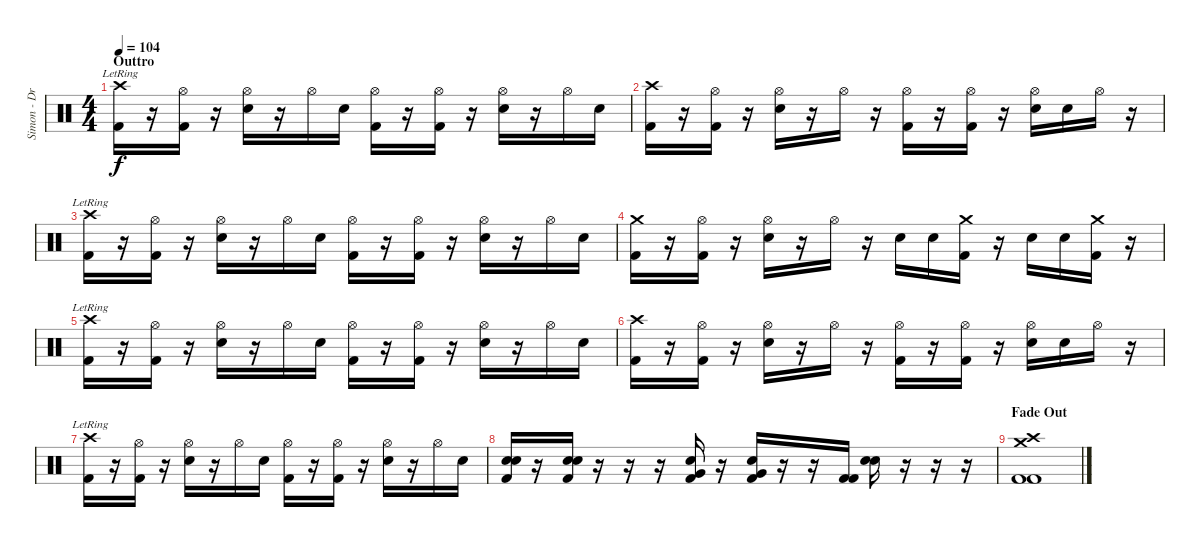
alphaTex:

\track ("Simon - Drums" "Simon - Dr") {instrument percussion}
\staff {score}
\articulation defaults
\ts (4 4)
\section ("" "Outtro")
\tempo 104
\clef neutral
\ks c
("Crash high (hit)"{lr} "Kick (hit) 2").16{dy f} r.16 ("Hi-Hat (open)" "Kick (hit) 2").16 r.16 ("Hi-Hat (open)" "Electric Snare (hit)").16 r.16 "Hi-Hat (open)".16 "Electric Snare (hit)".16 ("Hi-Hat (open)" "Kick (hit) 2").16 r.16 ("Hi-Hat (open)" "Kick (hit) 2").16 r.16 ("Hi-Hat (open)" "Electric Snare (hit)").16 r.16 "Hi-Hat (open)".16 "Electric Snare (hit)".16 |
("Crash high (hit)" "Kick (hit) 2").16 r.16 ("Hi-Hat (open)" "Kick (hit) 2").16 r.16 ("Hi-Hat (open)" "Electric Snare (hit)").16 r.16 "Hi-Hat (open)".16 r.16 ("Hi-Hat (open)" "Kick (hit) 2").16 r.16 ("Hi-Hat (open)" "Kick (hit) 2").16 r.16 ("Hi-Hat (open)" "Electric Snare (hit)").16 "Electric Snare (hit)".16 "Hi-Hat (open)".16 r.16 |
("Crash high (hit)"{lr} "Kick (hit) 2").16 r.16 ("Hi-Hat (open)" "Kick (hit) 2").16 r.16 ("Hi-Hat (open)" "Electric Snare (hit)").16 r.16 "Hi-Hat (open)".16 "Electric Snare (hit)".16 ("Hi-Hat (open)" "Kick (hit) 2").16 r.16 ("Hi-Hat (open)" "Kick (hit) 2").16 r.16 ("Hi-Hat (open)" "Electric Snare (hit)").16 r.16 "Hi-Hat (open)".16 "Electric Snare (hit)".16 |
("Crash medium (hit)" "Kick (hit) 2").16 r.16 ("Hi-Hat (open)" "Kick (hit) 2").16 r.16 ("Hi-Hat (open)" "Electric Snare (hit)").16 r.16 "Hi-Hat (open)".16 r.16 "Electric Snare (hit)".16 "Electric Snare (hit)".16 ("Crash medium (hit)" "Kick (hit) 2").16 r.16 "Electric Snare (hit)".16 "Electric Snare (hit)".16 ("Crash medium (hit)" "Kick (hit) 2").16 r.16 |
("Crash high (hit)"{lr} "Kick (hit) 2").16 r.16 ("Hi-Hat (open)" "Kick (hit) 2").16 r.16 ("Hi-Hat (open)" "Electric Snare (hit)").16 r.16 "Hi-Hat (open)".16 "Electric Snare (hit)".16 ("Hi-Hat (open)" "Kick (hit) 2").16 r.16 ("Hi-Hat (open)" "Kick (hit) 2").16 r.16 ("Hi-Hat (open)" "Electric Snare (hit)").16 r.16 "Hi-Hat (open)".16 "Electric Snare (hit)".16 |
("Crash high (hit)" "Kick (hit) 2").16 r.16 ("Hi-Hat (open)" "Kick (hit) 2").16 r.16 ("Hi-Hat (open)" "Electric Snare (hit)").16 r.16 "Hi-Hat (open)".16 r.16 ("Hi-Hat (open)" "Kick (hit) 2").16 r.16 ("Hi-Hat (open)" "Kick (hit) 2").16 r.16 ("Hi-Hat (open)" "Electric Snare (hit)").16 "Electric Snare (hit)".16 "Hi-Hat (open)".16 r.16 |
("Crash high (hit)"{lr} "Kick (hit) 2").16 r.16 ("Hi-Hat (open)" "Kick (hit) 2").16 r.16 ("Hi-Hat (open)" "Electric Snare (hit)").16 r.16 "Hi-Hat (open)".16 "Electric Snare (hit)".16 ("Hi-Hat (open)" "Kick (hit) 2").16 r.16 ("Hi-Hat (open)" "Kick (hit) 2").16 r.16 ("Hi-Hat (open)" "Electric Snare (hit)").16 r.16 "Hi-Hat (open)".16 "Electric Snare (hit)".16 |
("Electric Snare (hit)" "Electric Snare (hit)" "Kick (hit) 2").16 r.16 ("Electric Snare (hit)" "Electric Snare (hit)" "Kick (hit) 2").16 r.16 r.16 r.16 ("Very Low Tom (hit)" "Electric Snare (hit)" "Kick (hit) 2").16 r.16 ("Very Low Tom (hit)" "Electric Snare (hit)" "Kick (hit) 2").16 r.16 r.16 ("Kick (hit) 2" "Kick (hit) 2").16 ("Electric Snare (hit)" "Electric Snare (hit)").16 r.16 r.16 r.16 |
\section ("" "Fade Out")
("Crash medium (hit)" "Crash high (hit)" "Kick (hit) 2" "Kick (hit) 2").1
